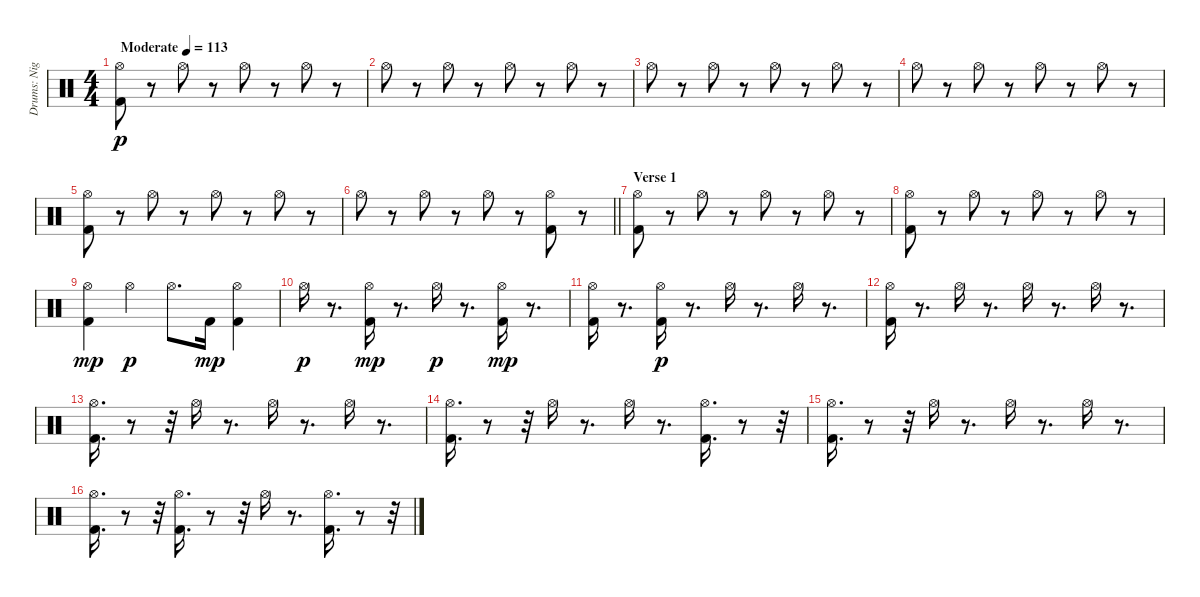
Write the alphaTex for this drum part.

\track ("Drums: Nigel Olsson" "Drums: Nig") {instrument percussion}
\staff {score}
\articulation defaults
\ts (4 4)
\tempo (113 "Moderate")
\clef neutral
\ks c
("Hi-Hat (open)" "Kick (hit) 2").8{dy p} r.8 "Hi-Hat (open)".8 r.8 "Hi-Hat (open)".8 r.8 "Hi-Hat (open)".8 r.8 |
"Hi-Hat (open)".8 r.8 "Hi-Hat (open)".8 r.8 "Hi-Hat (open)".8 r.8 "Hi-Hat (open)".8 r.8 |
"Hi-Hat (open)".8 r.8 "Hi-Hat (open)".8 r.8 "Hi-Hat (open)".8 r.8 "Hi-Hat (open)".8 r.8 |
"Hi-Hat (open)".8 r.8 "Hi-Hat (open)".8 r.8 "Hi-Hat (open)".8 r.8 "Hi-Hat (open)".8 r.8 |
("Hi-Hat (open)" "Kick (hit) 2").8 r.8 "Hi-Hat (open)".8 r.8 "Hi-Hat (open)".8 r.8 "Hi-Hat (open)".8 r.8 |
\barLineRight lightlight "Hi-Hat (open)".8
r.8 "Hi-Hat (open)".8 r.8 "Hi-Hat (open)".8 r.8 ("Hi-Hat (open)" "Kick (hit) 2").8 r.8 |
\section ("" "Verse 1")
("Hi-Hat (open)" "Kick (hit) 2").8 r.8 "Hi-Hat (open)".8 r.8 "Hi-Hat (open)".8 r.8 "Hi-Hat (open)".8 r.8 |
("Hi-Hat (open)" "Kick (hit) 2").8 r.8 "Hi-Hat (open)".8 r.8 "Hi-Hat (open)".8 r.8 "Hi-Hat (open)".8 r.8 |
("Hi-Hat (open)" "Kick (hit) 2").4{dy mp} "Hi-Hat (open)".4{dy p} "Hi-Hat (open)".8{d} "Kick (hit) 2".16{dy mp} ("Hi-Hat (open)" "Kick (hit) 2").4 |
"Hi-Hat (open)".16{dy p} r.8{d} ("Hi-Hat (open)" "Kick (hit) 2").16{dy mp} r.8{d} "Hi-Hat (open)".16{dy p} r.8{d} ("Kick (hit) 2" "Hi-Hat (open)").16{dy mp} r.8{d} |
("Kick (hit) 2" "Hi-Hat (open)").16 r.8{d} ("Hi-Hat (open)" "Kick (hit) 2").16{dy p} r.8{d} "Hi-Hat (open)".16 r.8{d} "Hi-Hat (open)".16 r.8{d} |
("Hi-Hat (open)" "Kick (hit) 2").16 r.8{d} "Hi-Hat (open)".16 r.8{d} "Hi-Hat (open)".16 r.8{d} "Hi-Hat (open)".16 r.8{d} |
("Hi-Hat (open)" "Kick (hit) 2").16{d} r.8 r.32 "Hi-Hat (open)".16 r.8{d} "Hi-Hat (open)".16 r.8{d} "Hi-Hat (open)".16 r.8{d} |
("Hi-Hat (open)" "Kick (hit) 2").16{d} r.8 r.32 "Hi-Hat (open)".16 r.8{d} "Hi-Hat (open)".16 r.8{d} ("Hi-Hat (open)" "Kick (hit) 2").16{d} r.8 r.32 |
("Hi-Hat (open)" "Kick (hit) 2").16{d} r.8 r.32 "Hi-Hat (open)".16 r.8{d} "Hi-Hat (open)".16 r.8{d} "Hi-Hat (open)".16 r.8{d} |
("Hi-Hat (open)" "Kick (hit) 2").16{d} r.8 r.32 ("Hi-Hat (open)" "Kick (hit) 2").16{d} r.8 r.32 "Hi-Hat (open)".16 r.8{d} ("Hi-Hat (open)" "Kick (hit) 2").16{d} r.8 r.32
